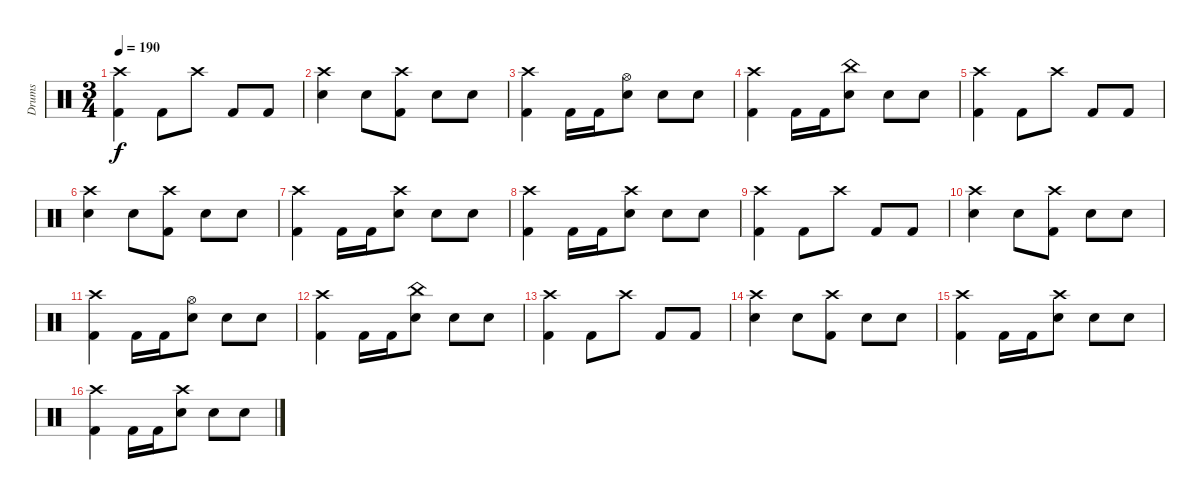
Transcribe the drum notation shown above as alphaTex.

\track ("Drums" "Drums") {instrument percussion}
\staff {score}
\articulation defaults
\ts (3 4)
\tempo 190
\clef neutral
\ks c
("Crash high (hit)" "Kick (hit) 2").4{dy f} "Kick (hit) 2".8 "Crash high (hit)".8 "Kick (hit) 2".8 "Kick (hit) 2".8 |
("Crash high (hit)" "Snare (hit) 2").4 "Snare (hit) 2".8 ("Crash high (hit)" "Kick (hit) 2").8 "Snare (hit) 2".8 "Snare (hit) 2".8 |
("Crash high (hit)" "Kick (hit) 2").4 "Kick (hit) 2".16 "Kick (hit) 2".16 ("Hi-Hat (open)" "Snare (hit) 2").8 "Snare (hit) 2".8 "Snare (hit) 2".8 |
("Crash high (hit)" "Kick (hit) 2").4 "Kick (hit) 2".16 "Kick (hit) 2".16 ("China (hit)" "Snare (hit) 2").8 "Snare (hit) 2".8 "Snare (hit) 2".8 |
("Crash high (hit)" "Kick (hit) 2").4 "Kick (hit) 2".8 "Crash high (hit)".8 "Kick (hit) 2".8 "Kick (hit) 2".8 |
("Crash high (hit)" "Snare (hit) 2").4 "Snare (hit) 2".8 ("Crash high (hit)" "Kick (hit) 2").8 "Snare (hit) 2".8 "Snare (hit) 2".8 |
("Crash high (hit)" "Kick (hit) 2").4 "Kick (hit) 2".16 "Kick (hit) 2".16 ("Crash high (hit)" "Snare (hit) 2").8 "Snare (hit) 2".8 "Snare (hit) 2".8 |
("Crash high (hit)" "Kick (hit) 2").4 "Kick (hit) 2".16 "Kick (hit) 2".16 ("Crash high (hit)" "Snare (hit) 2").8 "Snare (hit) 2".8 "Snare (hit) 2".8 |
("Crash high (hit)" "Kick (hit) 2").4 "Kick (hit) 2".8 "Crash high (hit)".8 "Kick (hit) 2".8 "Kick (hit) 2".8 |
("Crash high (hit)" "Snare (hit) 2").4 "Snare (hit) 2".8 ("Crash high (hit)" "Kick (hit) 2").8 "Snare (hit) 2".8 "Snare (hit) 2".8 |
("Crash high (hit)" "Kick (hit) 2").4 "Kick (hit) 2".16 "Kick (hit) 2".16 ("Hi-Hat (open)" "Snare (hit) 2").8 "Snare (hit) 2".8 "Snare (hit) 2".8 |
("Crash high (hit)" "Kick (hit) 2").4 "Kick (hit) 2".16 "Kick (hit) 2".16 ("China (hit)" "Snare (hit) 2").8 "Snare (hit) 2".8 "Snare (hit) 2".8 |
("Crash high (hit)" "Kick (hit) 2").4 "Kick (hit) 2".8 "Crash high (hit)".8 "Kick (hit) 2".8 "Kick (hit) 2".8 |
("Crash high (hit)" "Snare (hit) 2").4 "Snare (hit) 2".8 ("Crash high (hit)" "Kick (hit) 2").8 "Snare (hit) 2".8 "Snare (hit) 2".8 |
("Crash high (hit)" "Kick (hit) 2").4 "Kick (hit) 2".16 "Kick (hit) 2".16 ("Crash high (hit)" "Snare (hit) 2").8 "Snare (hit) 2".8 "Snare (hit) 2".8 |
("Crash high (hit)" "Kick (hit) 2").4 "Kick (hit) 2".16 "Kick (hit) 2".16 ("Crash high (hit)" "Snare (hit) 2").8 "Snare (hit) 2".8 "Snare (hit) 2".8
